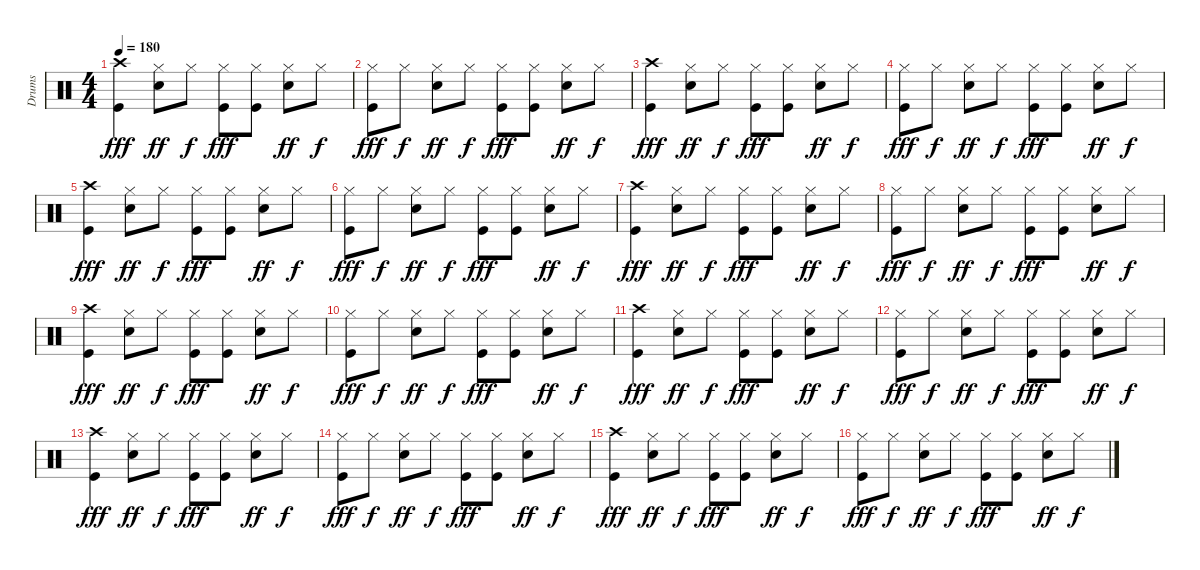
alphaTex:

\track ("Drums" "Drums") {instrument percussion}
\staff {score}
\articulation defaults
\ts (4 4)
\tempo 180
\clef neutral
\ks aminor
("Crash high (hit)" "Kick (hit)").4{dy fff} ("Hi-Hat (closed)" "Snare (hit) 2").8{dy ff} "Hi-Hat (closed)".8{dy f} ("Hi-Hat (closed)" "Kick (hit)").8{dy fff} ("Hi-Hat (closed)" "Kick (hit)").8 ("Hi-Hat (closed)" "Snare (hit) 2").8{dy ff} "Hi-Hat (closed)".8{dy f} |
("Hi-Hat (closed)" "Kick (hit)").8{dy fff} "Hi-Hat (closed)".8{dy f} ("Hi-Hat (closed)" "Snare (hit) 2").8{dy ff} "Hi-Hat (closed)".8{dy f} ("Hi-Hat (closed)" "Kick (hit)").8{dy fff} ("Hi-Hat (closed)" "Kick (hit)").8 ("Hi-Hat (closed)" "Snare (hit) 2").8{dy ff} "Hi-Hat (closed)".8{dy f} |
("Crash high (hit)" "Kick (hit)").4{dy fff} ("Hi-Hat (closed)" "Snare (hit) 2").8{dy ff} "Hi-Hat (closed)".8{dy f} ("Hi-Hat (closed)" "Kick (hit)").8{dy fff} ("Hi-Hat (closed)" "Kick (hit)").8 ("Hi-Hat (closed)" "Snare (hit) 2").8{dy ff} "Hi-Hat (closed)".8{dy f} |
("Hi-Hat (closed)" "Kick (hit)").8{dy fff} "Hi-Hat (closed)".8{dy f} ("Hi-Hat (closed)" "Snare (hit) 2").8{dy ff} "Hi-Hat (closed)".8{dy f} ("Hi-Hat (closed)" "Kick (hit)").8{dy fff} ("Hi-Hat (closed)" "Kick (hit)").8 ("Hi-Hat (closed)" "Snare (hit) 2").8{dy ff} "Hi-Hat (closed)".8{dy f} |
("Crash high (hit)" "Kick (hit)").4{dy fff} ("Hi-Hat (closed)" "Snare (hit) 2").8{dy ff} "Hi-Hat (closed)".8{dy f} ("Hi-Hat (closed)" "Kick (hit)").8{dy fff} ("Hi-Hat (closed)" "Kick (hit)").8 ("Hi-Hat (closed)" "Snare (hit) 2").8{dy ff} "Hi-Hat (closed)".8{dy f} |
("Hi-Hat (closed)" "Kick (hit)").8{dy fff} "Hi-Hat (closed)".8{dy f} ("Hi-Hat (closed)" "Snare (hit) 2").8{dy ff} "Hi-Hat (closed)".8{dy f} ("Hi-Hat (closed)" "Kick (hit)").8{dy fff} ("Hi-Hat (closed)" "Kick (hit)").8 ("Hi-Hat (closed)" "Snare (hit) 2").8{dy ff} "Hi-Hat (closed)".8{dy f} |
("Crash high (hit)" "Kick (hit)").4{dy fff} ("Hi-Hat (closed)" "Snare (hit) 2").8{dy ff} "Hi-Hat (closed)".8{dy f} ("Hi-Hat (closed)" "Kick (hit)").8{dy fff} ("Hi-Hat (closed)" "Kick (hit)").8 ("Hi-Hat (closed)" "Snare (hit) 2").8{dy ff} "Hi-Hat (closed)".8{dy f} |
("Hi-Hat (closed)" "Kick (hit)").8{dy fff} "Hi-Hat (closed)".8{dy f} ("Hi-Hat (closed)" "Snare (hit) 2").8{dy ff} "Hi-Hat (closed)".8{dy f} ("Hi-Hat (closed)" "Kick (hit)").8{dy fff} ("Hi-Hat (closed)" "Kick (hit)").8 ("Hi-Hat (closed)" "Snare (hit) 2").8{dy ff} "Hi-Hat (closed)".8{dy f} |
("Crash high (hit)" "Kick (hit)").4{dy fff} ("Hi-Hat (closed)" "Snare (hit) 2").8{dy ff} "Hi-Hat (closed)".8{dy f} ("Hi-Hat (closed)" "Kick (hit)").8{dy fff} ("Hi-Hat (closed)" "Kick (hit)").8 ("Hi-Hat (closed)" "Snare (hit) 2").8{dy ff} "Hi-Hat (closed)".8{dy f} |
("Hi-Hat (closed)" "Kick (hit)").8{dy fff} "Hi-Hat (closed)".8{dy f} ("Hi-Hat (closed)" "Snare (hit) 2").8{dy ff} "Hi-Hat (closed)".8{dy f} ("Hi-Hat (closed)" "Kick (hit)").8{dy fff} ("Hi-Hat (closed)" "Kick (hit)").8 ("Hi-Hat (closed)" "Snare (hit) 2").8{dy ff} "Hi-Hat (closed)".8{dy f} |
("Crash high (hit)" "Kick (hit)").4{dy fff} ("Hi-Hat (closed)" "Snare (hit) 2").8{dy ff} "Hi-Hat (closed)".8{dy f} ("Hi-Hat (closed)" "Kick (hit)").8{dy fff} ("Hi-Hat (closed)" "Kick (hit)").8 ("Hi-Hat (closed)" "Snare (hit) 2").8{dy ff} "Hi-Hat (closed)".8{dy f} |
("Hi-Hat (closed)" "Kick (hit)").8{dy fff} "Hi-Hat (closed)".8{dy f} ("Hi-Hat (closed)" "Snare (hit) 2").8{dy ff} "Hi-Hat (closed)".8{dy f} ("Hi-Hat (closed)" "Kick (hit)").8{dy fff} ("Hi-Hat (closed)" "Kick (hit)").8 ("Hi-Hat (closed)" "Snare (hit) 2").8{dy ff} "Hi-Hat (closed)".8{dy f} |
("Crash high (hit)" "Kick (hit)").4{dy fff} ("Hi-Hat (closed)" "Snare (hit) 2").8{dy ff} "Hi-Hat (closed)".8{dy f} ("Hi-Hat (closed)" "Kick (hit)").8{dy fff} ("Hi-Hat (closed)" "Kick (hit)").8 ("Hi-Hat (closed)" "Snare (hit) 2").8{dy ff} "Hi-Hat (closed)".8{dy f} |
("Hi-Hat (closed)" "Kick (hit)").8{dy fff} "Hi-Hat (closed)".8{dy f} ("Hi-Hat (closed)" "Snare (hit) 2").8{dy ff} "Hi-Hat (closed)".8{dy f} ("Hi-Hat (closed)" "Kick (hit)").8{dy fff} ("Hi-Hat (closed)" "Kick (hit)").8 ("Hi-Hat (closed)" "Snare (hit) 2").8{dy ff} "Hi-Hat (closed)".8{dy f} |
("Crash high (hit)" "Kick (hit)").4{dy fff} ("Hi-Hat (closed)" "Snare (hit) 2").8{dy ff} "Hi-Hat (closed)".8{dy f} ("Hi-Hat (closed)" "Kick (hit)").8{dy fff} ("Hi-Hat (closed)" "Kick (hit)").8 ("Hi-Hat (closed)" "Snare (hit) 2").8{dy ff} "Hi-Hat (closed)".8{dy f} |
("Hi-Hat (closed)" "Kick (hit)").8{dy fff} "Hi-Hat (closed)".8{dy f} ("Hi-Hat (closed)" "Snare (hit) 2").8{dy ff} "Hi-Hat (closed)".8{dy f} ("Hi-Hat (closed)" "Kick (hit)").8{dy fff} ("Hi-Hat (closed)" "Kick (hit)").8 ("Hi-Hat (closed)" "Snare (hit) 2").8{dy ff} "Hi-Hat (closed)".8{dy f}
